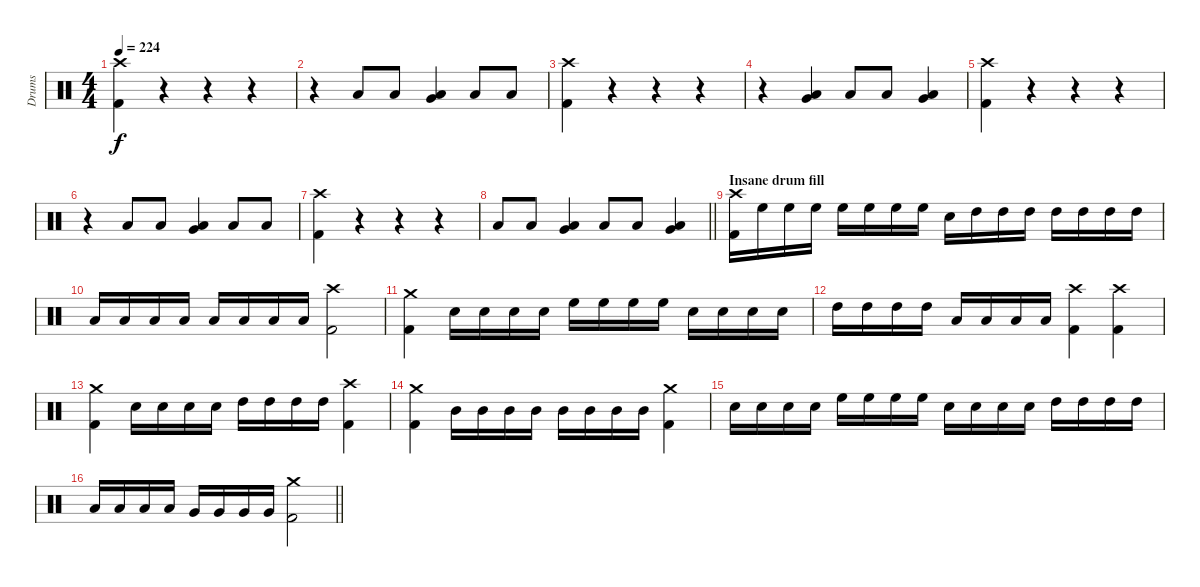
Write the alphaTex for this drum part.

\track ("Drums" "Drums") {instrument percussion}
\staff {score}
\articulation defaults
\ts (4 4)
\tempo 224
\clef neutral
\ks c
("Crash high (hit)" "Kick (hit) 2").4{dy f} r.4 r.4 r.4 |
r.4 "Low Tom (hit)".8 "Low Tom (hit)".8 ("Low Tom (hit)" "Very Low Tom (hit)").4 "Low Tom (hit)".8 "Low Tom (hit)".8 |
("Crash high (hit)" "Kick (hit) 2").4 r.4 r.4 r.4 |
r.4 ("Low Tom (hit)" "Very Low Tom (hit)").4 "Low Tom (hit)".8 "Low Tom (hit)".8 ("Low Tom (hit)" "Very Low Tom (hit)").4 |
("Crash high (hit)" "Kick (hit) 2").4 r.4 r.4 r.4 |
r.4 "Low Tom (hit)".8 "Low Tom (hit)".8 ("Low Tom (hit)" "Very Low Tom (hit)").4 "Low Tom (hit)".8 "Low Tom (hit)".8 |
("Crash high (hit)" "Kick (hit) 2").4 r.4 r.4 r.4 |
\barLineRight lightlight "Low Tom (hit)".8 "Low Tom (hit)".8
("Low Tom (hit)" "Very Low Tom (hit)").4 "Low Tom (hit)".8 "Low Tom (hit)".8 ("Low Tom (hit)" "Very Low Tom (hit)").4 |
\section ("" "Insane drum fill")
("Crash high (hit)" "Kick (hit) 2").16 "High Floor Tom (hit)".16 "High Floor Tom (hit)".16 "High Floor Tom (hit)".16 "High Floor Tom (hit)".16 "High Floor Tom (hit)".16 "High Floor Tom (hit)".16 "High Floor Tom (hit)".16 "Electric Snare (hit)".16 "High Tom (hit)".16 "High Tom (hit)".16 "High Tom (hit)".16 "High Tom (hit)".16 "High Tom (hit)".16 "High Tom (hit)".16 "High Tom (hit)".16 |
"Low Tom (hit)".16 "Low Tom (hit)".16 "Low Tom (hit)".16 "Low Tom (hit)".16 "Low Tom (hit)".16 "Low Tom (hit)".16 "Low Tom (hit)".16 "Low Tom (hit)".16 ("Crash high (hit)" "Kick (hit) 2").2 |
("Crash medium (hit)" "Kick (hit) 2").4 "Electric Snare (hit)".16 "Electric Snare (hit)".16 "Electric Snare (hit)".16 "Electric Snare (hit)".16 "High Floor Tom (hit)".16 "High Floor Tom (hit)".16 "High Floor Tom (hit)".16 "High Floor Tom (hit)".16 "Electric Snare (hit)".16 "Electric Snare (hit)".16 "Electric Snare (hit)".16 "Electric Snare (hit)".16 |
"High Tom (hit)".16 "High Tom (hit)".16 "High Tom (hit)".16 "High Tom (hit)".16 "Low Tom (hit)".16 "Low Tom (hit)".16 "Low Tom (hit)".16 "Low Tom (hit)".16 ("Crash high (hit)" "Kick (hit) 2").4 ("Crash high (hit)" "Kick (hit) 2").4 |
("Crash medium (hit)" "Kick (hit) 2").4 "Electric Snare (hit)".16 "Electric Snare (hit)".16 "Electric Snare (hit)".16 "Electric Snare (hit)".16 "High Tom (hit)".16 "High Tom (hit)".16 "High Tom (hit)".16 "High Tom (hit)".16 ("Crash high (hit)" "Kick (hit) 2").4 |
("Crash medium (hit)" "Kick (hit) 2").4 "Mid Tom (hit)".16 "Mid Tom (hit)".16 "Mid Tom (hit)".16 "Mid Tom (hit)".16 "Mid Tom (hit)".16 "Mid Tom (hit)".16 "Mid Tom (hit)".16 "Mid Tom (hit)".16 ("Crash medium (hit)" "Kick (hit) 2").4 |
"Electric Snare (hit)".16 "Electric Snare (hit)".16 "Electric Snare (hit)".16 "Electric Snare (hit)".16 "High Floor Tom (hit)".16 "High Floor Tom (hit)".16 "High Floor Tom (hit)".16 "High Floor Tom (hit)".16 "Electric Snare (hit)".16 "Electric Snare (hit)".16 "Electric Snare (hit)".16 "Electric Snare (hit)".16 "High Tom (hit)".16 "High Tom (hit)".16 "High Tom (hit)".16 "High Tom (hit)".16 |
\barLineRight lightlight "Low Tom (hit)".16 "Low Tom (hit)".16 "Low Tom (hit)".16 "Low Tom (hit)".16 "Very Low Tom (hit)".16 "Very Low Tom (hit)".16 "Very Low Tom (hit)".16 "Very Low Tom (hit)".16
("Crash medium (hit)" "Kick (hit) 2").2
